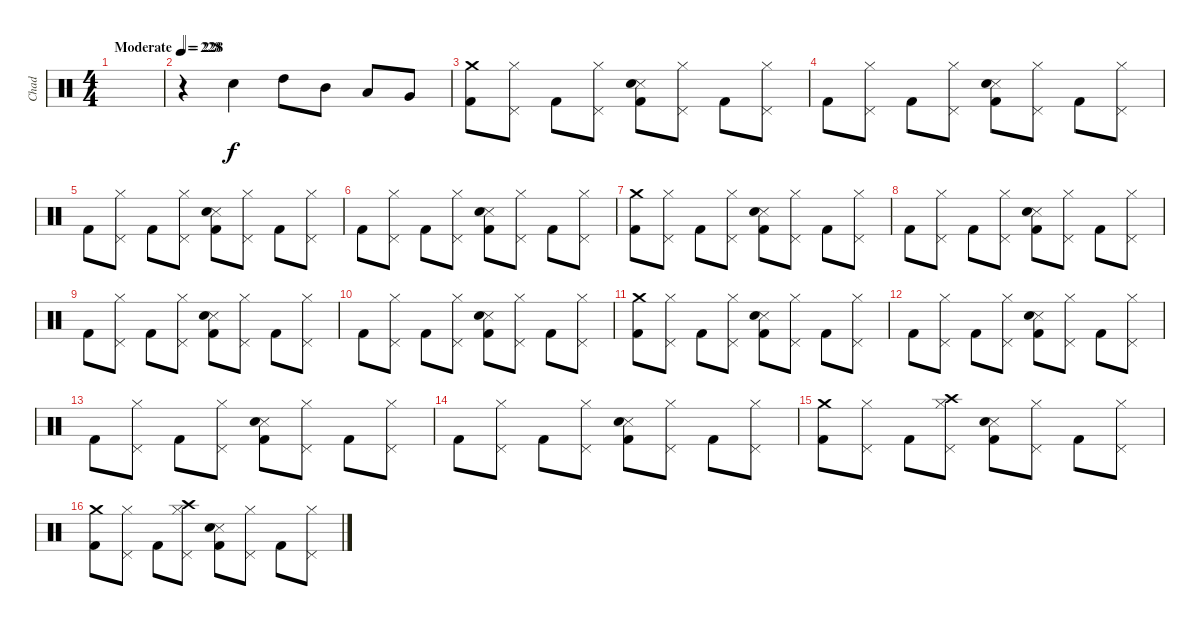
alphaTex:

\track ("Chad" "Chad") {instrument percussion}
\staff {score}
\articulation defaults
\ts (4 4)
\tempo (228 "Moderate")
\clef neutral
\ks c
|
\tempo 228
r.4 "Electric Snare (hit)".4 "High Tom (hit)".8 "Mid Tom (hit)".8 "Low Tom (hit)".8 "Very Low Tom (hit)".8 |
("Crash medium (hit)" "Kick (hit) 2").8 ("Hi-Hat (closed)" "Pedal Hi-Hat (hit)").8 "Kick (hit) 2".8 ("Hi-Hat (closed)" "Pedal Hi-Hat (hit)").8 ("Snare (side stick) 3" "Electric Snare (hit)" "Kick (hit) 2").8 ("Hi-Hat (closed)" "Pedal Hi-Hat (hit)").8 "Kick (hit) 2".8 ("Hi-Hat (closed)" "Pedal Hi-Hat (hit)").8 |
"Kick (hit) 2".8 ("Hi-Hat (closed)" "Pedal Hi-Hat (hit)").8 "Kick (hit) 2".8 ("Hi-Hat (closed)" "Pedal Hi-Hat (hit)").8 ("Snare (side stick) 3" "Electric Snare (hit)" "Kick (hit) 2").8 ("Hi-Hat (closed)" "Pedal Hi-Hat (hit)").8 "Kick (hit) 2".8 ("Hi-Hat (closed)" "Pedal Hi-Hat (hit)").8 |
"Kick (hit) 2".8 ("Hi-Hat (closed)" "Pedal Hi-Hat (hit)").8 "Kick (hit) 2".8 ("Hi-Hat (closed)" "Pedal Hi-Hat (hit)").8 ("Snare (side stick) 3" "Electric Snare (hit)" "Kick (hit) 2").8 ("Hi-Hat (closed)" "Pedal Hi-Hat (hit)").8 "Kick (hit) 2".8 ("Hi-Hat (closed)" "Pedal Hi-Hat (hit)").8 |
"Kick (hit) 2".8 ("Hi-Hat (closed)" "Pedal Hi-Hat (hit)").8 "Kick (hit) 2".8 ("Hi-Hat (closed)" "Pedal Hi-Hat (hit)").8 ("Snare (side stick) 3" "Electric Snare (hit)" "Kick (hit) 2").8 ("Hi-Hat (closed)" "Pedal Hi-Hat (hit)").8 "Kick (hit) 2".8 ("Hi-Hat (closed)" "Pedal Hi-Hat (hit)").8 |
("Crash medium (hit)" "Kick (hit) 2").8 ("Hi-Hat (closed)" "Pedal Hi-Hat (hit)").8 "Kick (hit) 2".8 ("Hi-Hat (closed)" "Pedal Hi-Hat (hit)").8 ("Snare (side stick) 3" "Electric Snare (hit)" "Kick (hit) 2").8 ("Hi-Hat (closed)" "Pedal Hi-Hat (hit)").8 "Kick (hit) 2".8 ("Hi-Hat (closed)" "Pedal Hi-Hat (hit)").8 |
"Kick (hit) 2".8 ("Hi-Hat (closed)" "Pedal Hi-Hat (hit)").8 "Kick (hit) 2".8 ("Hi-Hat (closed)" "Pedal Hi-Hat (hit)").8 ("Snare (side stick) 3" "Electric Snare (hit)" "Kick (hit) 2").8 ("Hi-Hat (closed)" "Pedal Hi-Hat (hit)").8 "Kick (hit) 2".8 ("Hi-Hat (closed)" "Pedal Hi-Hat (hit)").8 |
"Kick (hit) 2".8 ("Hi-Hat (closed)" "Pedal Hi-Hat (hit)").8 "Kick (hit) 2".8 ("Hi-Hat (closed)" "Pedal Hi-Hat (hit)").8 ("Snare (side stick) 3" "Electric Snare (hit)" "Kick (hit) 2").8 ("Hi-Hat (closed)" "Pedal Hi-Hat (hit)").8 "Kick (hit) 2".8 ("Hi-Hat (closed)" "Pedal Hi-Hat (hit)").8 |
"Kick (hit) 2".8 ("Hi-Hat (closed)" "Pedal Hi-Hat (hit)").8 "Kick (hit) 2".8 ("Hi-Hat (closed)" "Pedal Hi-Hat (hit)").8 ("Snare (side stick) 3" "Electric Snare (hit)" "Kick (hit) 2").8 ("Hi-Hat (closed)" "Pedal Hi-Hat (hit)").8 "Kick (hit) 2".8 ("Hi-Hat (closed)" "Pedal Hi-Hat (hit)").8 |
("Crash medium (hit)" "Kick (hit) 2").8 ("Hi-Hat (closed)" "Pedal Hi-Hat (hit)").8 "Kick (hit) 2".8 ("Hi-Hat (closed)" "Pedal Hi-Hat (hit)").8 ("Snare (side stick) 3" "Electric Snare (hit)" "Kick (hit) 2").8 ("Hi-Hat (closed)" "Pedal Hi-Hat (hit)").8 "Kick (hit) 2".8 ("Hi-Hat (closed)" "Pedal Hi-Hat (hit)").8 |
"Kick (hit) 2".8 ("Hi-Hat (closed)" "Pedal Hi-Hat (hit)").8 "Kick (hit) 2".8 ("Hi-Hat (closed)" "Pedal Hi-Hat (hit)").8 ("Snare (side stick) 3" "Electric Snare (hit)" "Kick (hit) 2").8 ("Hi-Hat (closed)" "Pedal Hi-Hat (hit)").8 "Kick (hit) 2".8 ("Hi-Hat (closed)" "Pedal Hi-Hat (hit)").8 |
"Kick (hit) 2".8 ("Hi-Hat (closed)" "Pedal Hi-Hat (hit)").8 "Kick (hit) 2".8 ("Hi-Hat (closed)" "Pedal Hi-Hat (hit)").8 ("Snare (side stick) 3" "Electric Snare (hit)" "Kick (hit) 2").8 ("Hi-Hat (closed)" "Pedal Hi-Hat (hit)").8 "Kick (hit) 2".8 ("Hi-Hat (closed)" "Pedal Hi-Hat (hit)").8 |
"Kick (hit) 2".8 ("Hi-Hat (closed)" "Pedal Hi-Hat (hit)").8 "Kick (hit) 2".8 ("Hi-Hat (closed)" "Pedal Hi-Hat (hit)").8 ("Snare (side stick) 3" "Electric Snare (hit)" "Kick (hit) 2").8 ("Hi-Hat (closed)" "Pedal Hi-Hat (hit)").8 "Kick (hit) 2".8 ("Hi-Hat (closed)" "Pedal Hi-Hat (hit)").8 |
("Crash medium (hit)" "Kick (hit) 2").8 ("Hi-Hat (closed)" "Pedal Hi-Hat (hit)").8 "Kick (hit) 2".8 ("Crash high (hit)" "Hi-Hat (closed)" "Pedal Hi-Hat (hit)").8 ("Snare (side stick) 3" "Electric Snare (hit)" "Kick (hit) 2").8 ("Hi-Hat (closed)" "Pedal Hi-Hat (hit)").8 "Kick (hit) 2".8 ("Hi-Hat (closed)" "Pedal Hi-Hat (hit)").8 |
("Crash medium (hit)" "Kick (hit) 2").8 ("Hi-Hat (closed)" "Pedal Hi-Hat (hit)").8 "Kick (hit) 2".8 ("Crash high (hit)" "Hi-Hat (closed)" "Pedal Hi-Hat (hit)").8 ("Snare (side stick) 3" "Electric Snare (hit)" "Kick (hit) 2").8 ("Hi-Hat (closed)" "Pedal Hi-Hat (hit)").8 "Kick (hit) 2".8 ("Hi-Hat (closed)" "Pedal Hi-Hat (hit)").8
